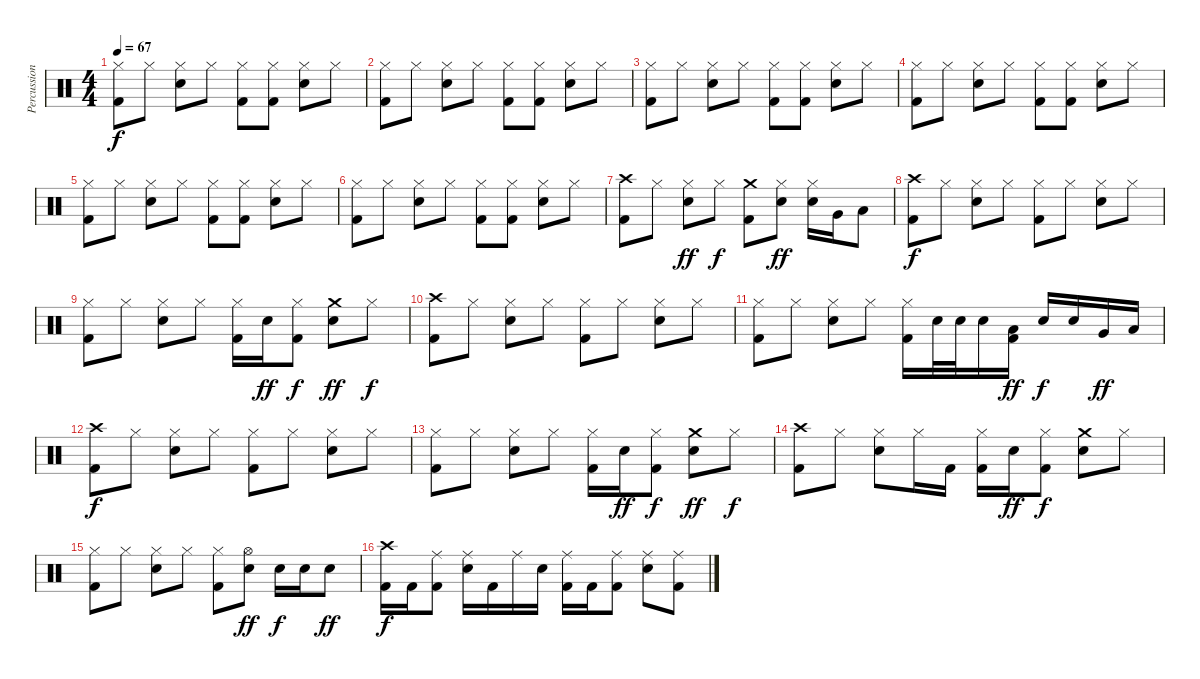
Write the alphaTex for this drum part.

\track ("Percussion" "Percussion") {instrument percussion}
\staff {score}
\articulation defaults
\ts (4 4)
\tempo 67
\clef neutral
\ks c
("Hi-Hat (closed)" "Kick (hit) 2").8{dy f} "Hi-Hat (closed)".8 ("Hi-Hat (closed)" "Electric Snare (hit)").8 "Hi-Hat (closed)".8 ("Hi-Hat (closed)" "Kick (hit) 2").8 ("Hi-Hat (closed)" "Kick (hit) 2").8 ("Hi-Hat (closed)" "Electric Snare (hit)").8 "Hi-Hat (closed)".8 |
("Hi-Hat (closed)" "Kick (hit) 2").8 "Hi-Hat (closed)".8 ("Hi-Hat (closed)" "Electric Snare (hit)").8 "Hi-Hat (closed)".8 ("Hi-Hat (closed)" "Kick (hit) 2").8 ("Hi-Hat (closed)" "Kick (hit) 2").8 ("Hi-Hat (closed)" "Electric Snare (hit)").8 "Hi-Hat (closed)".8 |
("Hi-Hat (closed)" "Kick (hit) 2").8 "Hi-Hat (closed)".8 ("Hi-Hat (closed)" "Electric Snare (hit)").8 "Hi-Hat (closed)".8 ("Hi-Hat (closed)" "Kick (hit) 2").8 ("Hi-Hat (closed)" "Kick (hit) 2").8 ("Hi-Hat (closed)" "Electric Snare (hit)").8 "Hi-Hat (closed)".8 |
("Hi-Hat (closed)" "Kick (hit) 2").8 "Hi-Hat (closed)".8 ("Hi-Hat (closed)" "Electric Snare (hit)").8 "Hi-Hat (closed)".8 ("Hi-Hat (closed)" "Kick (hit) 2").8 ("Hi-Hat (closed)" "Kick (hit) 2").8 ("Hi-Hat (closed)" "Electric Snare (hit)").8 "Hi-Hat (closed)".8 |
("Hi-Hat (closed)" "Kick (hit) 2").8 "Hi-Hat (closed)".8 ("Hi-Hat (closed)" "Electric Snare (hit)").8 "Hi-Hat (closed)".8 ("Hi-Hat (closed)" "Kick (hit) 2").8 ("Hi-Hat (closed)" "Kick (hit) 2").8 ("Hi-Hat (closed)" "Electric Snare (hit)").8 "Hi-Hat (closed)".8 |
("Hi-Hat (closed)" "Kick (hit) 2").8 "Hi-Hat (closed)".8 ("Hi-Hat (closed)" "Electric Snare (hit)").8 "Hi-Hat (closed)".8 ("Hi-Hat (closed)" "Kick (hit) 2").8 ("Hi-Hat (closed)" "Kick (hit) 2").8 ("Hi-Hat (closed)" "Electric Snare (hit)").8 "Hi-Hat (closed)".8 |
("Crash high (hit)" "Kick (hit) 2").8 "Hi-Hat (closed)".8 ("Hi-Hat (closed)" "Electric Snare (hit)").8{dy ff} "Hi-Hat (closed)".8{dy f} ("Crash medium (hit)" "Kick (hit) 2").8 ("Hi-Hat (closed)" "Electric Snare (hit)").8{dy ff} ("Hi-Hat (closed)" "Electric Snare (hit)").16 "Very Low Tom (hit)".16 "Low Floor Tom (hit)".8 |
("Crash high (hit)" "Kick (hit) 2").8{dy f} "Hi-Hat (closed)".8 ("Hi-Hat (closed)" "Electric Snare (hit)").8 "Hi-Hat (closed)".8 ("Hi-Hat (closed)" "Kick (hit) 2").8 "Hi-Hat (closed)".8 ("Hi-Hat (closed)" "Electric Snare (hit)").8 "Hi-Hat (closed)".8 |
("Hi-Hat (closed)" "Kick (hit) 2").8 "Hi-Hat (closed)".8 ("Hi-Hat (closed)" "Electric Snare (hit)").8 "Hi-Hat (closed)".8 ("Hi-Hat (closed)" "Kick (hit) 2").16 "Electric Snare (hit)".16{dy ff} ("Hi-Hat (closed)" "Kick (hit) 2").8{dy f} ("Crash medium (hit)" "Electric Snare (hit)").8{dy ff} "Hi-Hat (closed)".8{dy f} |
("Crash high (hit)" "Kick (hit) 2").8 "Hi-Hat (closed)".8 ("Hi-Hat (closed)" "Electric Snare (hit)").8 "Hi-Hat (closed)".8 ("Hi-Hat (closed)" "Kick (hit) 2").8 "Hi-Hat (closed)".8 ("Hi-Hat (closed)" "Electric Snare (hit)").8 "Hi-Hat (closed)".8 |
("Hi-Hat (closed)" "Kick (hit) 2").8 "Hi-Hat (closed)".8 ("Hi-Hat (closed)" "Electric Snare (hit)").8 "Hi-Hat (closed)".8 ("Hi-Hat (closed)" "Kick (hit) 2").16 "Electric Snare (hit)".32 "Electric Snare (hit)".32 "Electric Snare (hit)".16 ("Low Tom (hit)" "Kick (hit) 2").16{dy ff} "Electric Snare (hit)".16{dy f} "Electric Snare (hit)".16 "Very Low Tom (hit)".16{dy ff} "Low Floor Tom (hit)".16 |
("Crash high (hit)" "Kick (hit) 2").8{dy f} "Hi-Hat (closed)".8 ("Hi-Hat (closed)" "Electric Snare (hit)").8 "Hi-Hat (closed)".8 ("Hi-Hat (closed)" "Kick (hit) 2").8 "Hi-Hat (closed)".8 ("Hi-Hat (closed)" "Electric Snare (hit)").8 "Hi-Hat (closed)".8 |
("Hi-Hat (closed)" "Kick (hit) 2").8 "Hi-Hat (closed)".8 ("Hi-Hat (closed)" "Electric Snare (hit)").8 "Hi-Hat (closed)".8 ("Hi-Hat (closed)" "Kick (hit) 2").16 "Electric Snare (hit)".16{dy ff} ("Hi-Hat (closed)" "Kick (hit) 2").8{dy f} ("Crash medium (hit)" "Electric Snare (hit)").8{dy ff} "Hi-Hat (closed)".8{dy f} |
("Crash high (hit)" "Kick (hit) 2").8 "Hi-Hat (closed)".8 ("Hi-Hat (closed)" "Electric Snare (hit)").8 "Hi-Hat (closed)".16 "Kick (hit) 2".16 ("Hi-Hat (closed)" "Kick (hit) 2").16 "Electric Snare (hit)".16{dy ff} ("Hi-Hat (closed)" "Kick (hit) 2").8{dy f} ("Crash medium (hit)" "Electric Snare (hit)").8 "Hi-Hat (closed)".8 |
("Hi-Hat (closed)" "Kick (hit) 2").8 "Hi-Hat (closed)".8 ("Hi-Hat (closed)" "Electric Snare (hit)").8 "Hi-Hat (closed)".8 ("Hi-Hat (closed)" "Kick (hit) 2").8 ("Hi-Hat (open)" "Electric Snare (hit)").8{dy ff} "Electric Snare (hit)".16{dy f} "Electric Snare (hit)".16 "Electric Snare (hit)".8{dy ff} |
("Crash high (hit)" "Kick (hit) 2").16{dy f} "Kick (hit) 2".16 ("Ride (middle)" "Kick (hit) 2").8 ("Ride (middle)" "Electric Snare (hit)").16 "Kick (hit) 2".16 "Ride (middle)".16 "Electric Snare (hit)".16 ("Ride (middle)" "Kick (hit) 2").16 "Kick (hit) 2".16 ("Ride (middle)" "Kick (hit) 2").8 ("Ride (middle)" "Electric Snare (hit)").8 ("Ride (middle)" "Kick (hit) 2").8
